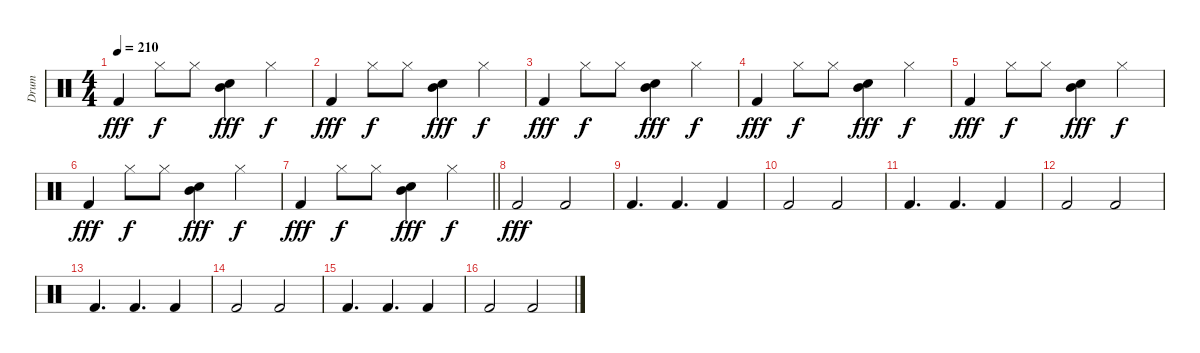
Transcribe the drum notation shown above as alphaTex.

\track ("Drum" "Drum") {instrument percussion}
\staff {score}
\articulation defaults
\ts (4 4)
\tempo 210
\clef neutral
\ks c "Kick (hit) 2".4{dy fff} "Hi-Hat (closed)".8{dy f} "Hi-Hat (closed)".8
("Snare (hit) 2" "Mid Tom (hit)").4{dy fff} "Hi-Hat (closed)".4{dy f} |
"Kick (hit) 2".4{dy fff} "Hi-Hat (closed)".8{dy f} "Hi-Hat (closed)".8 ("Snare (hit) 2" "Mid Tom (hit)").4{dy fff} "Hi-Hat (closed)".4{dy f} |
"Kick (hit) 2".4{dy fff} "Hi-Hat (closed)".8{dy f} "Hi-Hat (closed)".8 ("Snare (hit) 2" "Mid Tom (hit)").4{dy fff} "Hi-Hat (closed)".4{dy f} |
"Kick (hit) 2".4{dy fff} "Hi-Hat (closed)".8{dy f} "Hi-Hat (closed)".8 ("Snare (hit) 2" "Mid Tom (hit)").4{dy fff} "Hi-Hat (closed)".4{dy f} |
"Kick (hit) 2".4{dy fff} "Hi-Hat (closed)".8{dy f} "Hi-Hat (closed)".8 ("Snare (hit) 2" "Mid Tom (hit)").4{dy fff} "Hi-Hat (closed)".4{dy f} |
"Kick (hit) 2".4{dy fff} "Hi-Hat (closed)".8{dy f} "Hi-Hat (closed)".8 ("Snare (hit) 2" "Mid Tom (hit)").4{dy fff} "Hi-Hat (closed)".4{dy f} |
\barLineRight lightlight "Kick (hit) 2".4{dy fff} "Hi-Hat (closed)".8{dy f} "Hi-Hat (closed)".8
("Snare (hit) 2" "Mid Tom (hit)").4{dy fff} "Hi-Hat (closed)".4{dy f} |
"Kick (hit) 2".2{dy fff} "Kick (hit) 2".2 |
"Kick (hit) 2".4{d} "Kick (hit) 2".4{d} "Kick (hit) 2".4 |
"Kick (hit) 2".2 "Kick (hit) 2".2 |
"Kick (hit) 2".4{d} "Kick (hit) 2".4{d} "Kick (hit) 2".4 |
"Kick (hit) 2".2 "Kick (hit) 2".2 |
"Kick (hit) 2".4{d} "Kick (hit) 2".4{d} "Kick (hit) 2".4 |
"Kick (hit) 2".2 "Kick (hit) 2".2 |
"Kick (hit) 2".4{d} "Kick (hit) 2".4{d} "Kick (hit) 2".4 |
"Kick (hit) 2".2 "Kick (hit) 2".2
